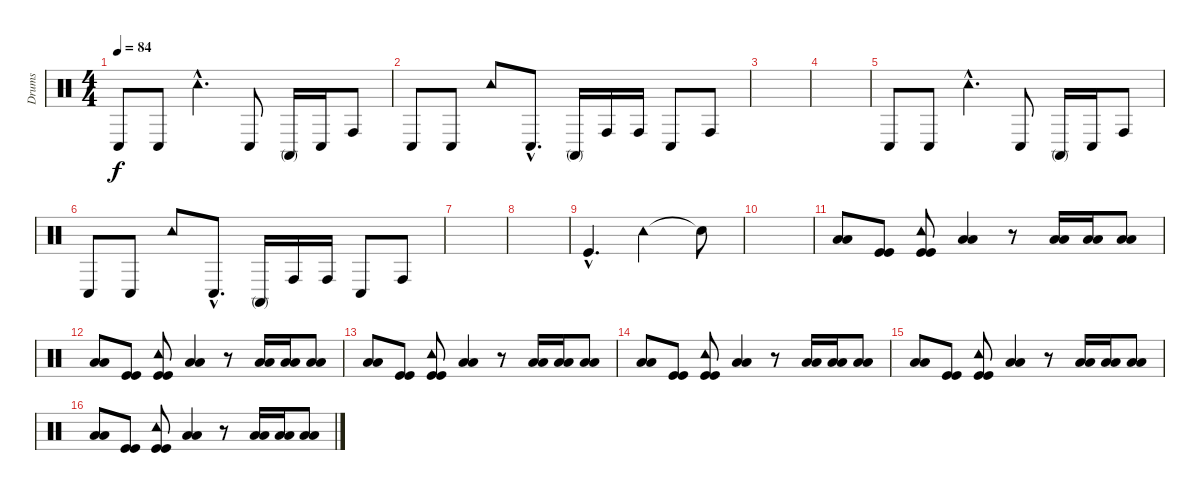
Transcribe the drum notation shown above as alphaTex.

\track ("Drums" "Drums") {instrument percussion}
\staff {score}
\articulation defaults
\ts (4 4)
\tempo 84
\clef neutral
\ks c "Conga low (hit)".8{dy f} "Conga low (hit)".8 "Tambourine (hit)"{hac}.4{d} "Conga low (hit)".8 "Conga high (mute)".16 "Conga low (hit)".16 "Conga high (hit)".8
|
"Conga low (hit)".8 "Conga low (hit)".8 "Tambourine (hit)".8 "Conga low (hit)"{hac}.8{d} "Conga high (mute)".16 "Conga high (hit)".16 "Conga high (hit)".16 "Conga low (hit)".8 "Conga high (hit)".8 |
|
|
"Conga low (hit)".8 "Conga low (hit)".8 "Tambourine (hit)"{hac}.4{d} "Conga low (hit)".8 "Conga high (mute)".16 "Conga low (hit)".16 "Conga high (hit)".8 |
"Conga low (hit)".8 "Conga low (hit)".8 "Tambourine (hit)".8 "Conga low (hit)"{hac}.8{d} "Conga high (mute)".16 "Conga high (hit)".16 "Conga high (hit)".16 "Conga low (hit)".8 "Conga high (hit)".8 |
|
|
"Kick (hit)"{hac}.4{d} "Tambourine (hit)".2 "Snare (hit)"{t}.8 |
|
("Low Floor Tom (hit)" "Low Floor Tom (hit)").8 ("Kick (hit)" "Kick (hit)").8 ("Kick (hit)" "Kick (hit)" "Tambourine (hit)").8 ("Low Tom (hit)" "Low Tom (hit)").4 r.8 ("Low Tom (hit)" "Low Tom (hit)").16 ("Low Tom (hit)" "Low Tom (hit)").16 ("Low Floor Tom (hit)" "Low Floor Tom (hit)").8 |
("Low Floor Tom (hit)" "Low Floor Tom (hit)").8 ("Kick (hit)" "Kick (hit)").8 ("Kick (hit)" "Kick (hit)" "Tambourine (hit)").8 ("Low Tom (hit)" "Low Tom (hit)").4 r.8 ("Low Tom (hit)" "Low Tom (hit)").16 ("Low Tom (hit)" "Low Tom (hit)").16 ("Low Floor Tom (hit)" "Low Floor Tom (hit)").8 |
("Low Floor Tom (hit)" "Low Floor Tom (hit)").8 ("Kick (hit)" "Kick (hit)").8 ("Kick (hit)" "Kick (hit)" "Tambourine (hit)").8 ("Low Tom (hit)" "Low Tom (hit)").4 r.8 ("Low Tom (hit)" "Low Tom (hit)").16 ("Low Tom (hit)" "Low Tom (hit)").16 ("Low Floor Tom (hit)" "Low Floor Tom (hit)").8 |
("Low Floor Tom (hit)" "Low Floor Tom (hit)").8 ("Kick (hit)" "Kick (hit)").8 ("Kick (hit)" "Kick (hit)" "Tambourine (hit)").8 ("Low Tom (hit)" "Low Tom (hit)").4 r.8 ("Low Tom (hit)" "Low Tom (hit)").16 ("Low Tom (hit)" "Low Tom (hit)").16 ("Low Floor Tom (hit)" "Low Floor Tom (hit)").8 |
("Low Floor Tom (hit)" "Low Floor Tom (hit)").8 ("Kick (hit)" "Kick (hit)").8 ("Kick (hit)" "Kick (hit)" "Tambourine (hit)").8 ("Low Tom (hit)" "Low Tom (hit)").4 r.8 ("Low Tom (hit)" "Low Tom (hit)").16 ("Low Tom (hit)" "Low Tom (hit)").16 ("Low Floor Tom (hit)" "Low Floor Tom (hit)").8 |
("Low Floor Tom (hit)" "Low Floor Tom (hit)").8 ("Kick (hit)" "Kick (hit)").8 ("Kick (hit)" "Kick (hit)" "Tambourine (hit)").8 ("Low Tom (hit)" "Low Tom (hit)").4 r.8 ("Low Tom (hit)" "Low Tom (hit)").16 ("Low Tom (hit)" "Low Tom (hit)").16 ("Low Floor Tom (hit)" "Low Floor Tom (hit)").8
